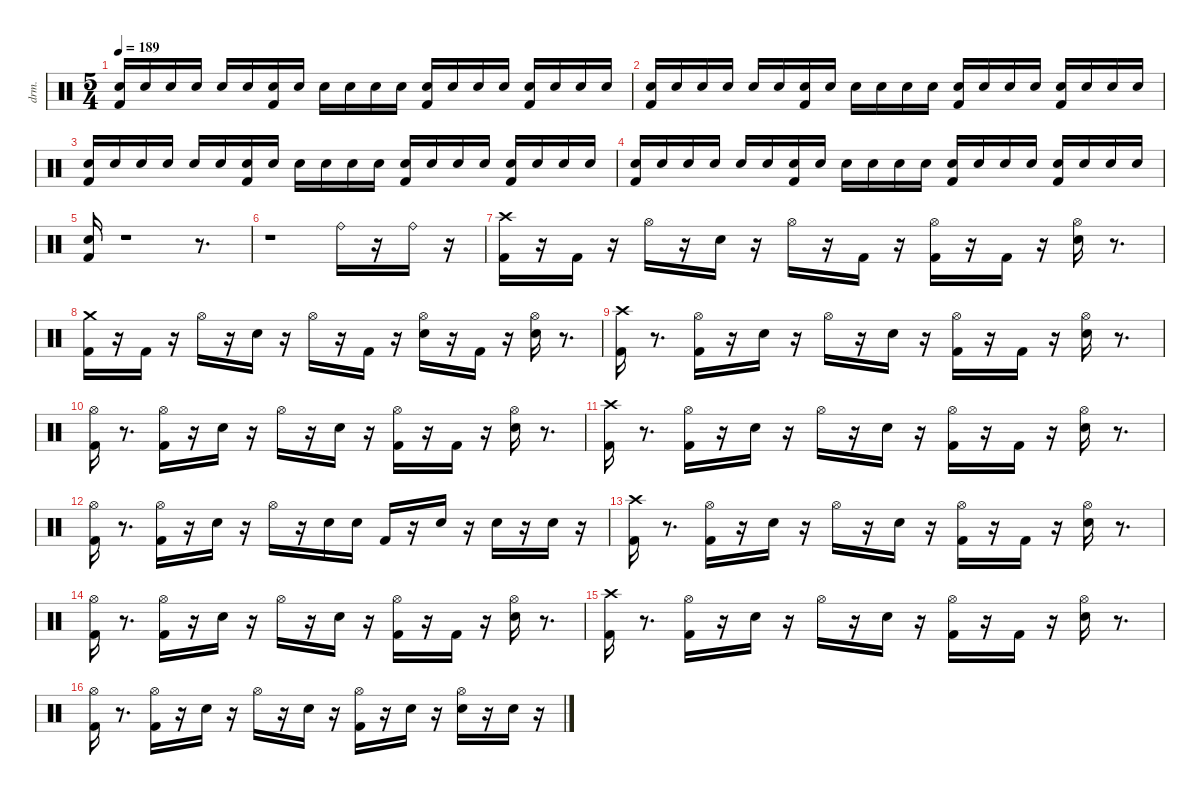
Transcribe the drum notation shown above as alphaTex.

\defaultSystemsLayout 4
\hideDynamics
\bracketExtendMode nobrackets
\track ("EZdrummer 3" "drm.") {instrument percussion}
\staff {score}
\articulation defaults
\ts (5 4)
\tempo 189
\clef neutral
\ks aminor
("Kick (hit) 2" "Snare (hit) 2").16{dy ff} "Snare (hit) 2".16{dy ppp} "Snare (hit) 2".16 "Snare (hit) 2".16 "Snare (hit) 2".16 "Snare (hit) 2".16 ("Kick (hit) 2" "Snare (hit) 2").16{dy p} "Snare (hit) 2".16{dy ppp} "Snare (hit) 2".16 "Snare (hit) 2".16 "Snare (hit) 2".16 "Snare (hit) 2".16 ("Kick (hit) 2" "Snare (hit) 2").16{dy f} "Snare (hit) 2".16{dy ppp} "Snare (hit) 2".16 "Snare (hit) 2".16 ("Kick (hit) 2" "Snare (hit) 2").16{dy p} "Snare (hit) 2".16{dy ppp} "Snare (hit) 2".16 "Snare (hit) 2".16 |
("Kick (hit) 2" "Snare (hit) 2").16{dy ff} "Snare (hit) 2".16{dy ppp} "Snare (hit) 2".16 "Snare (hit) 2".16 "Snare (hit) 2".16 "Snare (hit) 2".16 ("Kick (hit) 2" "Snare (hit) 2").16{dy p} "Snare (hit) 2".16{dy ppp} "Snare (hit) 2".16 "Snare (hit) 2".16 "Snare (hit) 2".16 "Snare (hit) 2".16 ("Kick (hit) 2" "Snare (hit) 2").16{dy f} "Snare (hit) 2".16{dy ppp} "Snare (hit) 2".16 "Snare (hit) 2".16 ("Kick (hit) 2" "Snare (hit) 2").16{dy mf} "Snare (hit) 2".16{dy ppp} "Snare (hit) 2".16 "Snare (hit) 2".16 |
("Kick (hit) 2" "Snare (hit) 2").16{dy ff} "Snare (hit) 2".16{dy ppp} "Snare (hit) 2".16 "Snare (hit) 2".16 "Snare (hit) 2".16 "Snare (hit) 2".16 ("Kick (hit) 2" "Snare (hit) 2").16{dy f} "Snare (hit) 2".16{dy ppp} "Snare (hit) 2".16 "Snare (hit) 2".16 "Snare (hit) 2".16 "Snare (hit) 2".16 ("Kick (hit) 2" "Snare (hit) 2").16{dy f} "Snare (hit) 2".16{dy ppp} "Snare (hit) 2".16 "Snare (hit) 2".16 ("Kick (hit) 2" "Snare (hit) 2").16{dy mf} "Snare (hit) 2".16{dy ppp} "Snare (hit) 2".16 "Snare (hit) 2".16 |
("Kick (hit) 2" "Snare (hit) 2").16{dy ff} "Snare (hit) 2".16{dy ppp} "Snare (hit) 2".16 "Snare (hit) 2".16 "Snare (hit) 2".16 "Snare (hit) 2".16 ("Kick (hit) 2" "Snare (hit) 2").16{dy f} "Snare (hit) 2".16{dy ppp} "Snare (hit) 2".16 "Snare (hit) 2".16 "Snare (hit) 2".16 "Snare (hit) 2".16 ("Kick (hit) 2" "Snare (hit) 2").16{dy f} "Snare (hit) 2".16{dy ppp} "Snare (hit) 2".16 "Snare (hit) 2".16 ("Kick (hit) 2" "Snare (hit) 2").16{dy mf} "Snare (hit) 2".16{dy ppp} "Snare (hit) 2".16 "Snare (hit) 2".16 |
("Kick (hit) 2" "Snare (hit) 2").16{dy fff} r.1 r.8{d} |
r.1 "Ride (bell)".16{dy f} r.16 "Ride (bell)".16{dy mf} r.16 |
("Kick (hit) 2" "Crash high (hit)"{acc #}).16 r.16 "Kick (hit) 2".16{dy ff} r.16 "Hi-Hat (open)"{acc #}.16{dy f} r.16 "Snare (hit) 2".16{dy ff} r.16 "Hi-Hat (open)"{acc #}.16 r.16 "Kick (hit) 2".16{dy mf} r.16 ("Kick (hit) 2" "Hi-Hat (open)"{acc #}).16{dy ff} r.16 "Kick (hit) 2".16{dy mf} r.16 ("Snare (hit) 2" "Hi-Hat (open)"{acc #}).16{dy ff} r.8{d} |
("Kick (hit) 2" "Crash medium (hit)").16{dy mf} r.16 "Kick (hit) 2".16{dy ff} r.16 "Hi-Hat (open)"{acc #}.16{dy f} r.16 "Snare (hit) 2".16{dy ff} r.16 "Hi-Hat (open)"{acc #}.16{dy f} r.16 "Kick (hit) 2".16 r.16 ("Snare (hit) 2" "Hi-Hat (open)"{acc #}).16{dy ff} r.16 "Kick (hit) 2".16 r.16 ("Snare (hit) 2" "Hi-Hat (open)"{acc #}).16 r.8{d} |
("Kick (hit) 2" "Crash high (hit)"{acc #}).16{dy fff} r.8{d} ("Kick (hit) 2" "Hi-Hat (open)"{acc #}).16{dy ff} r.16 "Snare (hit) 2".16 r.16 "Hi-Hat (open)"{acc #}.16{dy fff} r.16 "Snare (hit) 2".16{dy mf} r.16 ("Kick (hit) 2" "Hi-Hat (open)"{acc #}).16{dy f} r.16 "Kick (hit) 2".16{dy ff} r.16 ("Snare (hit) 2" "Hi-Hat (open)"{acc #}).16 r.8{d} |
("Kick (hit) 2" "Hi-Hat (open)"{acc #}).16 r.8{d} ("Kick (hit) 2" "Hi-Hat (open)"{acc #}).16 r.16 "Snare (hit) 2".16 r.16 "Hi-Hat (open)"{acc #}.16{dy fff} r.16 "Snare (hit) 2".16{dy f} r.16 ("Kick (hit) 2" "Hi-Hat (open)"{acc #}).16 r.16 "Kick (hit) 2".16{dy fff} r.16 ("Snare (hit) 2" "Hi-Hat (open)"{acc #}).16{dy ff} r.8{d} |
("Kick (hit) 2" "Crash high (hit)"{acc #}).16 r.8{d} ("Kick (hit) 2" "Hi-Hat (open)"{acc #}).16 r.16 "Snare (hit) 2".16 r.16 "Hi-Hat (open)"{acc #}.16{dy fff} r.16 "Snare (hit) 2".16{dy mf} r.16 ("Kick (hit) 2" "Hi-Hat (open)"{acc #}).16{dy ff} r.16 "Kick (hit) 2".16 r.16 ("Snare (hit) 2" "Hi-Hat (open)"{acc #}).16{dy f} r.8{d} |
("Kick (hit) 2" "Hi-Hat (open)"{acc #}).16{dy ff} r.8{d} ("Kick (hit) 2" "Hi-Hat (open)"{acc #}).16 r.16 "Snare (hit) 2".16 r.16 "Hi-Hat (open)"{acc #}.16 r.16 "Snare (hit) 2".16{dy fff} "Snare (hit) 2".16{dy f} "Kick (hit) 2".16{dy ff} r.16 "Snare (hit) 2".16 r.16 "Snare (hit) 2".16 r.16 "Snare (hit) 2".16{dy fff} r.16 |
("Kick (hit) 2" "Crash high (hit)"{acc #}).16{dy ff} r.8{d} ("Kick (hit) 2" "Hi-Hat (open)"{acc #}).16{dy f} r.16 "Snare (hit) 2".16{dy ff} r.16 "Hi-Hat (open)"{acc #}.16{dy fff} r.16 "Snare (hit) 2".16{dy mf} r.16 ("Kick (hit) 2" "Hi-Hat (open)"{acc #}).16{dy f} r.16 "Kick (hit) 2".16{dy ff} r.16 ("Snare (hit) 2" "Hi-Hat (open)"{acc #}).16{dy f} r.8{d} |
("Kick (hit) 2" "Hi-Hat (open)"{acc #}).16{dy ff} r.8{d} ("Kick (hit) 2" "Hi-Hat (open)"{acc #}).16 r.16 "Snare (hit) 2".16 r.16 "Hi-Hat (open)"{acc #}.16{dy fff} r.16 "Snare (hit) 2".16{dy f} r.16 ("Kick (hit) 2" "Hi-Hat (open)"{acc #}).16 r.16 "Kick (hit) 2".16{dy fff} r.16 ("Snare (hit) 2" "Hi-Hat (open)"{acc #}).16{dy ff} r.8{d} |
("Kick (hit) 2" "Crash high (hit)"{acc #}).16 r.8{d} ("Kick (hit) 2" "Hi-Hat (open)"{acc #}).16 r.16 "Snare (hit) 2".16 r.16 "Hi-Hat (open)"{acc #}.16{dy fff} r.16 "Snare (hit) 2".16{dy mf} r.16 ("Kick (hit) 2" "Hi-Hat (open)"{acc #}).16{dy ff} r.16 "Kick (hit) 2".16 r.16 ("Snare (hit) 2" "Hi-Hat (open)"{acc #}).16 r.8{d} |
("Kick (hit) 2" "Hi-Hat (open)"{acc #}).16 r.8{d} ("Kick (hit) 2" "Hi-Hat (open)"{acc #}).16 r.16 "Snare (hit) 2".16 r.16 "Hi-Hat (open)"{acc #}.16{dy fff} r.16 "Snare (hit) 2".16{dy f} r.16 ("Kick (hit) 2" "Hi-Hat (open)"{acc #}).16{dy ff} r.16 "Snare (hit) 2".16{dy f} r.16 ("Snare (hit) 2" "Hi-Hat (open)"{acc #}).16{dy ff} r.16 "Snare (hit) 2".16{dy fff} r.16
